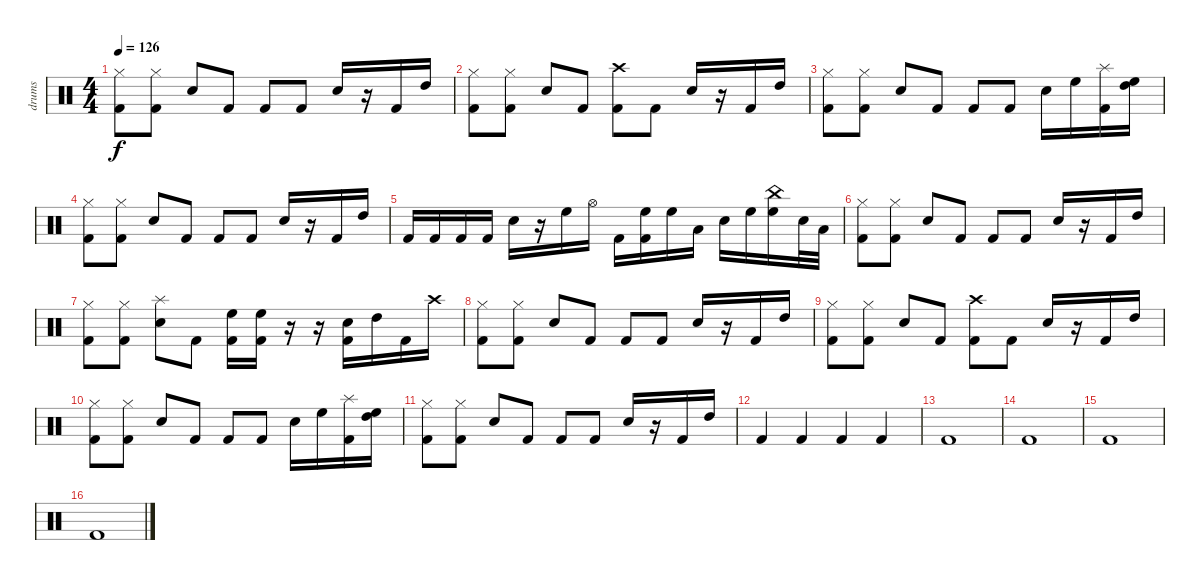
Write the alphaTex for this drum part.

\track ("drums" "drums") {instrument percussion}
\staff {score}
\articulation defaults
\ts (4 4)
\tempo 126
\clef neutral
\ks c
("Hi-Hat (closed)" "Kick (hit) 2").8{dy f} ("Hi-Hat (closed)" "Kick (hit) 2").8 "Snare (hit) 2".8 "Kick (hit) 2".8 "Kick (hit) 2".8 "Kick (hit) 2".8 "Snare (hit) 2".16 r.16 "Kick (hit) 2".16 "High Tom (hit)".16 |
("Hi-Hat (closed)" "Kick (hit) 2").8 ("Hi-Hat (closed)" "Kick (hit) 2").8 "Snare (hit) 2".8 "Kick (hit) 2".8 ("Crash high (hit)" "Kick (hit) 2").8 "Kick (hit) 2".8 "Snare (hit) 2".16 r.16 "Kick (hit) 2".16 "High Tom (hit)".16 |
("Hi-Hat (closed)" "Kick (hit) 2").8 ("Hi-Hat (closed)" "Kick (hit) 2").8 "Snare (hit) 2".8 "Kick (hit) 2".8 "Kick (hit) 2".8 "Kick (hit) 2".8 "Snare (hit) 2".16 "High Floor Tom (hit)".16 ("Splash (hit)" "Kick (hit) 2").16 ("High Floor Tom (hit)" "High Tom (hit)").16 |
("Hi-Hat (closed)" "Kick (hit) 2").8 ("Hi-Hat (closed)" "Kick (hit) 2").8 "Snare (hit) 2".8 "Kick (hit) 2".8 "Kick (hit) 2".8 "Kick (hit) 2".8 "Snare (hit) 2".16 r.16 "Kick (hit) 2".16 "High Tom (hit)".16 |
"Kick (hit) 2".16 "Kick (hit) 2".16 "Kick (hit) 2".16 "Kick (hit) 2".16 "Snare (hit) 2".16 r.16 "High Floor Tom (hit)".16 "Hi-Hat (open)".16 "Kick (hit) 2".16 ("High Floor Tom (hit)" "Kick (hit) 2").16 "High Floor Tom (hit)".16 "Low Tom (hit)".16 "Snare (hit) 2".16 "High Floor Tom (hit)".16 ("High Floor Tom (hit)" "China (hit)").16 "Snare (hit) 2".32 "Low Floor Tom (hit)".32 |
("Hi-Hat (closed)" "Kick (hit) 2").8 ("Hi-Hat (closed)" "Kick (hit) 2").8 "Snare (hit) 2".8 "Kick (hit) 2".8 "Kick (hit) 2".8 "Kick (hit) 2".8 "Snare (hit) 2".16 r.16 "Kick (hit) 2".16 "High Tom (hit)".16 |
("Hi-Hat (closed)" "Kick (hit) 2").8 ("Hi-Hat (closed)" "Kick (hit) 2").8 ("Splash (hit)" "Snare (hit) 2").8 "Kick (hit) 2".8 ("High Floor Tom (hit)" "Kick (hit) 2").16 ("High Floor Tom (hit)" "Kick (hit) 2").16 r.16 r.16 ("Snare (hit) 2" "Kick (hit) 2").16 "High Tom (hit)".16 "Kick (hit) 2".16 "Crash high (hit)".16 |
("Hi-Hat (closed)" "Kick (hit) 2").8 ("Hi-Hat (closed)" "Kick (hit) 2").8 "Snare (hit) 2".8 "Kick (hit) 2".8 "Kick (hit) 2".8 "Kick (hit) 2".8 "Snare (hit) 2".16 r.16 "Kick (hit) 2".16 "High Tom (hit)".16 |
("Hi-Hat (closed)" "Kick (hit) 2").8 ("Hi-Hat (closed)" "Kick (hit) 2").8 "Snare (hit) 2".8 "Kick (hit) 2".8 ("Crash high (hit)" "Kick (hit) 2").8 "Kick (hit) 2".8 "Snare (hit) 2".16 r.16 "Kick (hit) 2".16 "High Tom (hit)".16 |
("Hi-Hat (closed)" "Kick (hit) 2").8 ("Hi-Hat (closed)" "Kick (hit) 2").8 "Snare (hit) 2".8 "Kick (hit) 2".8 "Kick (hit) 2".8 "Kick (hit) 2".8 "Snare (hit) 2".16 "High Floor Tom (hit)".16 ("Splash (hit)" "Kick (hit) 2").16 ("High Floor Tom (hit)" "High Tom (hit)").16 |
("Hi-Hat (closed)" "Kick (hit) 2").8 ("Hi-Hat (closed)" "Kick (hit) 2").8 "Snare (hit) 2".8 "Kick (hit) 2".8 "Kick (hit) 2".8 "Kick (hit) 2".8 "Snare (hit) 2".16 r.16 "Kick (hit) 2".16 "High Tom (hit)".16 |
"Kick (hit) 2".4 "Kick (hit) 2".4 "Kick (hit) 2".4 "Kick (hit) 2".4 |
"Kick (hit) 2".1 |
"Kick (hit) 2".1 |
"Kick (hit) 2".1 |
"Kick (hit) 2".1
